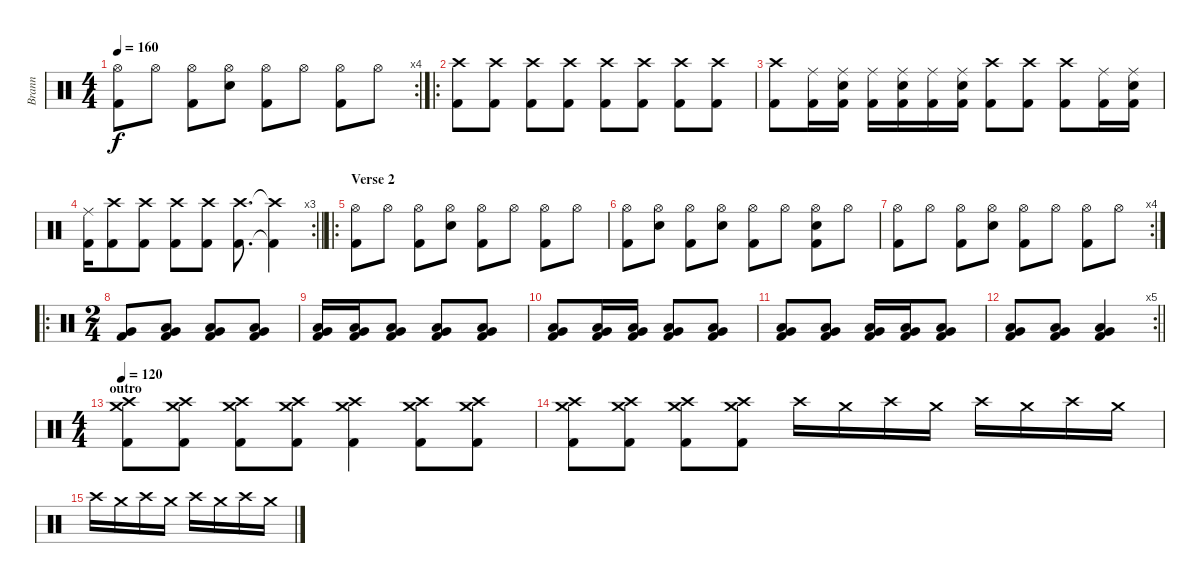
\track ("Brann" "Brann") {instrument percussion}
\staff {score}
\articulation defaults
\rc 4
\ts (4 4)
\tempo 160
\clef neutral
\ks c
("Hi-Hat (open)" "Kick (hit) 2").8{dy f} "Hi-Hat (open)".8 ("Hi-Hat (open)" "Kick (hit) 2").8 ("Hi-Hat (open)" "Electric Snare (hit)").8 ("Hi-Hat (open)" "Kick (hit) 2").8 "Hi-Hat (open)".8 ("Hi-Hat (open)" "Kick (hit) 2").8 "Hi-Hat (open)".8 |
\ro
("Crash high (hit)" "Kick (hit) 2").8 ("Crash high (hit)" "Kick (hit) 2").8 ("Crash high (hit)" "Kick (hit) 2").8 ("Crash high (hit)" "Kick (hit) 2").8 ("Crash high (hit)" "Kick (hit) 2").8 ("Crash high (hit)" "Kick (hit) 2").8 ("Crash high (hit)" "Kick (hit) 2").8 ("Crash high (hit)" "Kick (hit) 2").8 |
("Crash high (hit)" "Kick (hit) 2").8 ("Ride (middle)" "Kick (hit) 2").16 ("Ride (middle)" "Electric Snare (hit)" "Kick (hit) 2").16 ("Ride (middle)" "Kick (hit) 2").16 ("Ride (middle)" "Electric Snare (hit)" "Kick (hit) 2").16 ("Ride (middle)" "Kick (hit) 2").16 ("Ride (middle)" "Electric Snare (hit)" "Kick (hit) 2").16 ("Crash high (hit)" "Kick (hit) 2").8 ("Crash high (hit)" "Kick (hit) 2").8 ("Crash high (hit)" "Kick (hit) 2").8 ("Ride (middle)" "Kick (hit) 2").16 ("Ride (middle)" "Electric Snare (hit)" "Kick (hit) 2").16 |
\rc 3
\barLineRight lightlight
("Ride (middle)" "Kick (hit) 2").16 ("Crash high (hit)" "Kick (hit) 2").8 ("Crash high (hit)" "Kick (hit) 2").8 ("Crash high (hit)" "Kick (hit) 2").8 ("Crash high (hit)" "Kick (hit) 2").8 ("Crash high (hit)" "Kick (hit) 2").8{d} ("Crash high (hit)"{t} "Kick (hit) 2"{t}).4 |
\ro
\section ("" "Verse 2")
("Hi-Hat (open)" "Kick (hit) 2").8 "Hi-Hat (open)".8 ("Hi-Hat (open)" "Kick (hit) 2").8 ("Hi-Hat (open)" "Electric Snare (hit)").8 ("Hi-Hat (open)" "Kick (hit) 2").8 "Hi-Hat (open)".8 ("Hi-Hat (open)" "Kick (hit) 2").8 "Hi-Hat (open)".8 |
("Hi-Hat (open)" "Kick (hit) 2").8 ("Hi-Hat (open)" "Electric Snare (hit)").8 ("Hi-Hat (open)" "Kick (hit) 2").8 ("Hi-Hat (open)" "Snare (hit)").8 ("Hi-Hat (open)" "Kick (hit) 2").8 "Hi-Hat (open)".8 ("Hi-Hat (open)" "Electric Snare (hit)" "Kick (hit) 2").8 "Hi-Hat (open)".8 |
\rc 4
("Hi-Hat (open)" "Kick (hit) 2").8 "Hi-Hat (open)".8 ("Hi-Hat (open)" "Kick (hit) 2").8 ("Hi-Hat (open)" "Electric Snare (hit)").8 ("Hi-Hat (open)" "Kick (hit) 2").8 "Hi-Hat (open)".8 ("Hi-Hat (open)" "Kick (hit) 2").8 "Hi-Hat (open)".8 |
\ro
\ts (2 4)
("Very Low Tom (hit)" "Kick (hit) 2").8 ("Low Tom (hit)" "Very Low Tom (hit)" "Kick (hit) 2").8 ("Low Tom (hit)" "Very Low Tom (hit)" "Kick (hit) 2").8 ("Low Tom (hit)" "Very Low Tom (hit)" "Kick (hit) 2").8 |
("Low Tom (hit)" "Very Low Tom (hit)" "Kick (hit) 2").16 ("Low Tom (hit)" "Very Low Tom (hit)" "Kick (hit) 2").16 ("Low Tom (hit)" "Very Low Tom (hit)" "Kick (hit) 2").8 ("Low Tom (hit)" "Very Low Tom (hit)" "Kick (hit) 2").8 ("Low Tom (hit)" "Very Low Tom (hit)" "Kick (hit) 2").8 |
("Low Tom (hit)" "Very Low Tom (hit)" "Kick (hit) 2").8 ("Low Tom (hit)" "Very Low Tom (hit)" "Kick (hit) 2").16 ("Low Tom (hit)" "Very Low Tom (hit)" "Kick (hit) 2").16 ("Low Tom (hit)" "Very Low Tom (hit)" "Kick (hit) 2").8 ("Low Tom (hit)" "Very Low Tom (hit)" "Kick (hit) 2").8 |
("Low Tom (hit)" "Very Low Tom (hit)" "Kick (hit) 2").8 ("Low Tom (hit)" "Very Low Tom (hit)" "Kick (hit) 2").8 ("Low Tom (hit)" "Very Low Tom (hit)" "Kick (hit) 2").16 ("Low Tom (hit)" "Very Low Tom (hit)" "Kick (hit) 2").16 ("Low Tom (hit)" "Very Low Tom (hit)" "Kick (hit) 2").8 |
\rc 5
\barLineRight lightlight
("Low Tom (hit)" "Very Low Tom (hit)" "Kick (hit) 2").8 ("Low Tom (hit)" "Very Low Tom (hit)" "Kick (hit) 2").8 ("Low Tom (hit)" "Very Low Tom (hit)" "Kick (hit) 2").4 |
\ts (4 4)
\section ("" "outro")
\tempo 120
("Crash high (hit)" "Crash medium (hit)" "Kick (hit) 2").8 ("Crash high (hit)" "Crash medium (hit)" "Kick (hit) 2").8 ("Crash high (hit)" "Crash medium (hit)" "Kick (hit) 2").8 ("Crash high (hit)" "Crash medium (hit)" "Kick (hit) 2").8 ("Crash high (hit)" "Crash medium (hit)" "Kick (hit) 2").4 ("Crash high (hit)" "Crash medium (hit)" "Kick (hit) 2").8 ("Crash high (hit)" "Crash medium (hit)" "Kick (hit) 2").8 |
("Crash high (hit)" "Crash medium (hit)" "Kick (hit) 2").8 ("Crash high (hit)" "Crash medium (hit)" "Kick (hit) 2").8 ("Crash high (hit)" "Crash medium (hit)" "Kick (hit) 2").8 ("Crash high (hit)" "Crash medium (hit)" "Kick (hit) 2").8 "Crash high (hit)".16 "Crash medium (hit)".16 "Crash high (hit)".16 "Crash medium (hit)".16 "Crash high (hit)".16 "Crash medium (hit)".16 "Crash high (hit)".16 "Crash medium (hit)".16 |
"Crash high (hit)".16 "Crash medium (hit)".16 "Crash high (hit)".16 "Crash medium (hit)".16 "Crash high (hit)".16 "Crash medium (hit)".16 "Crash high (hit)".16 "Crash medium (hit)".16
